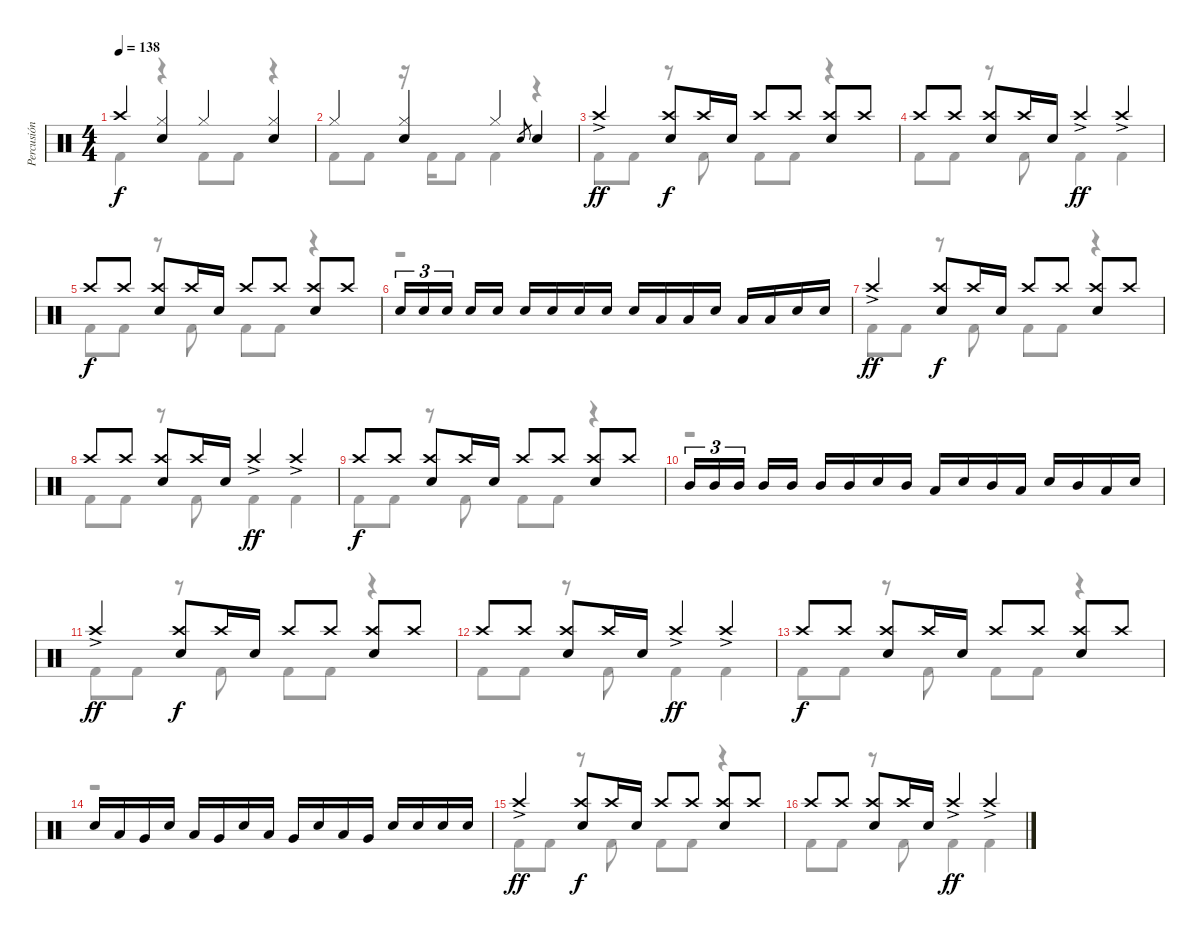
\track ("Percusión" "Percusión") {instrument percussion}
\staff {score}
\articulation defaults
\voice
\ts (4 4)
\tempo 138
\clef neutral
\ks c "Crash high (hit)".4{dy f}
("Electric Snare (hit)" "Hi-Hat (closed)").4 "Hi-Hat (closed)".4 ("Electric Snare (hit)" "Hi-Hat (closed)").4 |
"Hi-Hat (closed)".4 ("Electric Snare (hit)" "Hi-Hat (closed)").4 "Hi-Hat (closed)".4 "Electric Snare (hit)".8{gr} "Electric Snare (hit)".4 |
"Crash high (hit)"{ac}.4{dy ff} ("Electric Snare (hit)" "Crash high (hit)").8{dy f} "Crash high (hit)".16 "Electric Snare (hit)".16 "Crash high (hit)".8 "Crash high (hit)".8 ("Electric Snare (hit)" "Crash high (hit)").8 "Crash high (hit)".8 |
"Crash high (hit)".8 "Crash high (hit)".8 ("Electric Snare (hit)" "Crash high (hit)").8 "Crash high (hit)".16 "Electric Snare (hit)".16 "Crash high (hit)"{ac}.4{dy ff} "Crash high (hit)"{ac}.4 |
"Crash high (hit)".8{dy f} "Crash high (hit)".8 ("Electric Snare (hit)" "Crash high (hit)").8 "Crash high (hit)".16 "Electric Snare (hit)".16 "Crash high (hit)".8 "Crash high (hit)".8 ("Electric Snare (hit)" "Crash high (hit)").8 "Crash high (hit)".8 |
"Electric Snare (hit)".16{tu (3 2)} "Electric Snare (hit)".16{tu (3 2)} "Electric Snare (hit)".16{tu (3 2) beam splitsecondary} "Electric Snare (hit)".16 "Electric Snare (hit)".16 "Electric Snare (hit)".16 "Electric Snare (hit)".16 "Electric Snare (hit)".16 "Electric Snare (hit)".16 "Electric Snare (hit)".16 "Low Tom (hit)".16 "Low Tom (hit)".16 "Electric Snare (hit)".16 "Low Tom (hit)".16 "Low Tom (hit)".16 "Electric Snare (hit)".16 "Electric Snare (hit)".16 |
"Crash high (hit)"{ac}.4{dy ff} ("Electric Snare (hit)" "Crash high (hit)").8{dy f} "Crash high (hit)".16 "Electric Snare (hit)".16 "Crash high (hit)".8 "Crash high (hit)".8 ("Electric Snare (hit)" "Crash high (hit)").8 "Crash high (hit)".8 |
"Crash high (hit)".8 "Crash high (hit)".8 ("Electric Snare (hit)" "Crash high (hit)").8 "Crash high (hit)".16 "Electric Snare (hit)".16 "Crash high (hit)"{ac}.4{dy ff} "Crash high (hit)"{ac}.4 |
"Crash high (hit)".8{dy f} "Crash high (hit)".8 ("Electric Snare (hit)" "Crash high (hit)").8 "Crash high (hit)".16 "Electric Snare (hit)".16 "Crash high (hit)".8 "Crash high (hit)".8 ("Electric Snare (hit)" "Crash high (hit)").8 "Crash high (hit)".8 |
"Mid Tom (hit)".16{tu (3 2)} "Mid Tom (hit)".16{tu (3 2)} "Mid Tom (hit)".16{tu (3 2) beam splitsecondary} "Mid Tom (hit)".16 "Mid Tom (hit)".16 "Mid Tom (hit)".16 "Mid Tom (hit)".16 "Electric Snare (hit)".16 "Mid Tom (hit)".16 "Low Tom (hit)".16 "Electric Snare (hit)".16 "Mid Tom (hit)".16 "Low Tom (hit)".16 "Electric Snare (hit)".16 "Mid Tom (hit)".16 "Low Tom (hit)".16 "Electric Snare (hit)".16 |
"Crash high (hit)"{ac}.4{dy ff} ("Electric Snare (hit)" "Crash high (hit)").8{dy f} "Crash high (hit)".16 "Electric Snare (hit)".16 "Crash high (hit)".8 "Crash high (hit)".8 ("Electric Snare (hit)" "Crash high (hit)").8 "Crash high (hit)".8 |
"Crash high (hit)".8 "Crash high (hit)".8 ("Electric Snare (hit)" "Crash high (hit)").8 "Crash high (hit)".16 "Electric Snare (hit)".16 "Crash high (hit)"{ac}.4{dy ff} "Crash high (hit)"{ac}.4 |
"Crash high (hit)".8{dy f} "Crash high (hit)".8 ("Electric Snare (hit)" "Crash high (hit)").8 "Crash high (hit)".16 "Electric Snare (hit)".16 "Crash high (hit)".8 "Crash high (hit)".8 ("Electric Snare (hit)" "Crash high (hit)").8 "Crash high (hit)".8 |
"Electric Snare (hit)".16 "Low Tom (hit)".16 "Very Low Tom (hit)".16 "Electric Snare (hit)".16 "Low Tom (hit)".16 "Very Low Tom (hit)".16 "Electric Snare (hit)".16 "Low Tom (hit)".16 "Very Low Tom (hit)".16 "Electric Snare (hit)".16 "Low Tom (hit)".16 "Very Low Tom (hit)".16 "Electric Snare (hit)".16 "Electric Snare (hit)".16 "Electric Snare (hit)".16 "Electric Snare (hit)".16 |
"Crash high (hit)"{ac}.4{dy ff} ("Electric Snare (hit)" "Crash high (hit)").8{dy f} "Crash high (hit)".16 "Electric Snare (hit)".16 "Crash high (hit)".8 "Crash high (hit)".8 ("Electric Snare (hit)" "Crash high (hit)").8 "Crash high (hit)".8 |
"Crash high (hit)".8 "Crash high (hit)".8 ("Electric Snare (hit)" "Crash high (hit)").8 "Crash high (hit)".16 "Electric Snare (hit)".16 "Crash high (hit)"{ac}.4{dy ff} "Crash high (hit)"{ac}.4
\voice
\clef neutral
\ottava regular
\simile none
\ks c "Kick (hit) 2".4{dy f}
r.4 "Kick (hit) 2".8 "Kick (hit) 2".8 r.4 |
"Kick (hit) 2".8 "Kick (hit) 2".8 r.16 "Kick (hit) 2".16 "Kick (hit) 2".8 "Kick (hit) 2".4 r.4 |
"Kick (hit) 2".8 "Kick (hit) 2".8 r.8 "Kick (hit) 2".8 "Kick (hit) 2".8 "Kick (hit) 2".8 r.4 |
"Kick (hit) 2".8 "Kick (hit) 2".8 r.8 "Kick (hit) 2".8 "Kick (hit) 2".4 "Kick (hit) 2".4 |
"Kick (hit) 2".8 "Kick (hit) 2".8 r.8 "Kick (hit) 2".8 "Kick (hit) 2".8 "Kick (hit) 2".8 r.4 |
r.1 |
"Kick (hit) 2".8 "Kick (hit) 2".8 r.8 "Kick (hit) 2".8 "Kick (hit) 2".8 "Kick (hit) 2".8 r.4 |
"Kick (hit) 2".8 "Kick (hit) 2".8 r.8 "Kick (hit) 2".8 "Kick (hit) 2".4 "Kick (hit) 2".4 |
"Kick (hit) 2".8 "Kick (hit) 2".8 r.8 "Kick (hit) 2".8 "Kick (hit) 2".8 "Kick (hit) 2".8 r.4 |
r.1 |
"Kick (hit) 2".8 "Kick (hit) 2".8 r.8 "Kick (hit) 2".8 "Kick (hit) 2".8 "Kick (hit) 2".8 r.4 |
"Kick (hit) 2".8 "Kick (hit) 2".8 r.8 "Kick (hit) 2".8 "Kick (hit) 2".4 "Kick (hit) 2".4 |
"Kick (hit) 2".8 "Kick (hit) 2".8 r.8 "Kick (hit) 2".8 "Kick (hit) 2".8 "Kick (hit) 2".8 r.4 |
r.1 |
"Kick (hit) 2".8 "Kick (hit) 2".8 r.8 "Kick (hit) 2".8 "Kick (hit) 2".8 "Kick (hit) 2".8 r.4 |
"Kick (hit) 2".8 "Kick (hit) 2".8 r.8 "Kick (hit) 2".8 "Kick (hit) 2".4 "Kick (hit) 2".4
